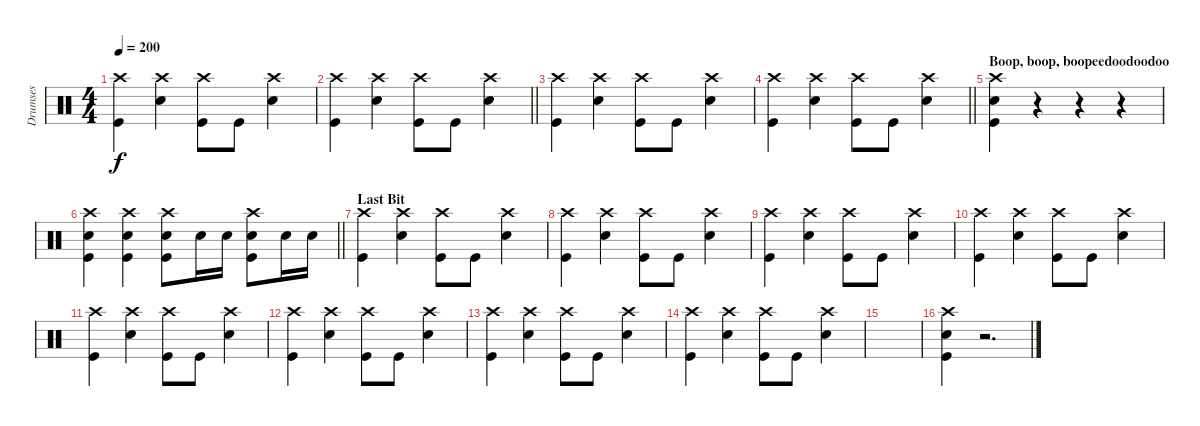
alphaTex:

\track ("Drumses" "Drumses") {instrument percussion}
\staff {score}
\articulation defaults
\ts (4 4)
\tempo 200
\clef neutral
\ks c
("Crash high (hit)" "Kick (hit)").4{dy f} ("Crash high (hit)" "Snare (hit) 2").4 ("Crash high (hit)" "Kick (hit)").8 "Kick (hit)".8 ("Crash high (hit)" "Snare (hit) 2").4 |
\barLineRight lightlight
("Crash high (hit)" "Kick (hit)").4 ("Crash high (hit)" "Snare (hit) 2").4 ("Crash high (hit)" "Kick (hit)").8 "Kick (hit)".8 ("Crash high (hit)" "Snare (hit) 2").4 |
("Crash high (hit)" "Kick (hit)").4 ("Crash high (hit)" "Snare (hit) 2").4 ("Crash high (hit)" "Kick (hit)").8 "Kick (hit)".8 ("Crash high (hit)" "Snare (hit) 2").4 |
\barLineRight lightlight
("Crash high (hit)" "Kick (hit)").4 ("Crash high (hit)" "Snare (hit) 2").4 ("Crash high (hit)" "Kick (hit)").8 "Kick (hit)".8 ("Crash high (hit)" "Snare (hit) 2").4 |
\section ("" "Boop, boop, boopeedoodoodoo")
("Crash high (hit)" "Snare (hit) 2" "Kick (hit)").4 r.4 r.4 r.4 |
\barLineRight lightlight
("Crash high (hit)" "Snare (hit) 2" "Kick (hit)").4 ("Crash high (hit)" "Snare (hit) 2" "Kick (hit)").4 ("Crash high (hit)" "Snare (hit) 2" "Kick (hit)").8 "Snare (hit) 2".16 "Snare (hit) 2".16 ("Crash high (hit)" "Snare (hit) 2" "Kick (hit)").8 "Snare (hit) 2".16 "Snare (hit) 2".16 |
\section ("" "Last Bit")
("Crash high (hit)" "Kick (hit)").4 ("Crash high (hit)" "Snare (hit) 2").4 ("Crash high (hit)" "Kick (hit)").8 "Kick (hit)".8 ("Crash high (hit)" "Snare (hit) 2").4 |
("Crash high (hit)" "Kick (hit)").4 ("Crash high (hit)" "Snare (hit) 2").4 ("Crash high (hit)" "Kick (hit)").8 "Kick (hit)".8 ("Crash high (hit)" "Snare (hit) 2").4 |
("Crash high (hit)" "Kick (hit)").4 ("Crash high (hit)" "Snare (hit) 2").4 ("Crash high (hit)" "Kick (hit)").8 "Kick (hit)".8 ("Crash high (hit)" "Snare (hit) 2").4 |
("Crash high (hit)" "Kick (hit)").4 ("Crash high (hit)" "Snare (hit) 2").4 ("Crash high (hit)" "Kick (hit)").8 "Kick (hit)".8 ("Crash high (hit)" "Snare (hit) 2").4 |
("Crash high (hit)" "Kick (hit)").4 ("Crash high (hit)" "Snare (hit) 2").4 ("Crash high (hit)" "Kick (hit)").8 "Kick (hit)".8 ("Crash high (hit)" "Snare (hit) 2").4 |
("Crash high (hit)" "Kick (hit)").4 ("Crash high (hit)" "Snare (hit) 2").4 ("Crash high (hit)" "Kick (hit)").8 "Kick (hit)".8 ("Crash high (hit)" "Snare (hit) 2").4 |
("Crash high (hit)" "Kick (hit)").4 ("Crash high (hit)" "Snare (hit) 2").4 ("Crash high (hit)" "Kick (hit)").8 "Kick (hit)".8 ("Crash high (hit)" "Snare (hit) 2").4 |
("Crash high (hit)" "Kick (hit)").4 ("Crash high (hit)" "Snare (hit) 2").4 ("Crash high (hit)" "Kick (hit)").8 "Kick (hit)".8 ("Crash high (hit)" "Snare (hit) 2").4 |
|
("Crash high (hit)" "Snare (hit) 2" "Kick (hit)").4 r.2{d}
